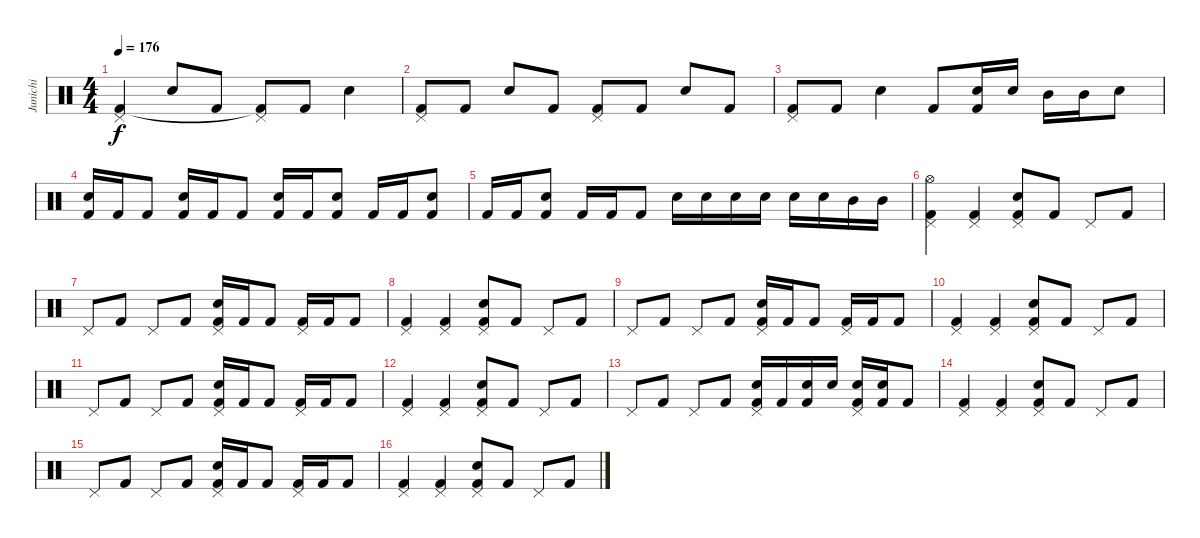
\track ("Junichi" "Junichi") {instrument percussion}
\staff {score}
\articulation defaults
\ts (4 4)
\tempo 176
\clef neutral
\ks c
("Pedal Hi-Hat (hit)" "Kick (hit) 2").4{dy f} "Snare (hit) 2".8 "Kick (hit) 2".8 ("Pedal Hi-Hat (hit)" "Kick (hit) 2"{t}).8 "Kick (hit) 2".8 "Snare (hit) 2".4 |
("Pedal Hi-Hat (hit)" "Kick (hit) 2").8 "Kick (hit) 2".8 "Snare (hit) 2".8 "Kick (hit) 2".8 ("Pedal Hi-Hat (hit)" "Kick (hit) 2").8 "Kick (hit) 2".8 "Snare (hit) 2".8 "Kick (hit) 2".8 |
("Pedal Hi-Hat (hit)" "Kick (hit) 2").8 "Kick (hit) 2".8 "Snare (hit) 2".4 "Kick (hit) 2".8 ("Snare (hit) 2" "Kick (hit) 2").16 "Snare (hit) 2".16 "Mid Tom (hit)".16 "Mid Tom (hit)".16 "Snare (hit) 2".8 |
("Snare (hit) 2" "Kick (hit) 2").16 "Kick (hit) 2".16 "Kick (hit) 2".8 ("Snare (hit) 2" "Kick (hit) 2").16 "Kick (hit) 2".16 "Kick (hit) 2".8 ("Snare (hit) 2" "Kick (hit) 2").16 "Kick (hit) 2".16 ("Snare (hit) 2" "Kick (hit) 2").8 "Kick (hit) 2".16 "Kick (hit) 2".16 ("Snare (hit) 2" "Kick (hit) 2").8 |
"Kick (hit) 2".16 "Kick (hit) 2".16 ("Snare (hit) 2" "Kick (hit) 2").8 "Kick (hit) 2".16 "Kick (hit) 2".16 "Kick (hit) 2".8 "Snare (hit) 2".16 "Snare (hit) 2".16 "Snare (hit) 2".16 "Snare (hit) 2".16 "Snare (hit) 2".16 "Snare (hit) 2".16 "Mid Tom (hit)".16 "Mid Tom (hit)".16 |
("Pedal Hi-Hat (hit)" "Hi-Hat (open)" "Kick (hit) 2").4 ("Pedal Hi-Hat (hit)" "Kick (hit) 2").4 ("Pedal Hi-Hat (hit)" "Snare (hit) 2" "Kick (hit) 2").8 "Kick (hit) 2".8 "Pedal Hi-Hat (hit)".8 "Kick (hit) 2".8 |
"Pedal Hi-Hat (hit)".8 "Kick (hit) 2".8 "Pedal Hi-Hat (hit)".8 "Kick (hit) 2".8 ("Pedal Hi-Hat (hit)" "Snare (hit) 2" "Kick (hit) 2").16 "Kick (hit) 2".16 "Kick (hit) 2".8 ("Pedal Hi-Hat (hit)" "Kick (hit) 2").16 "Kick (hit) 2".16 "Kick (hit) 2".8 |
("Pedal Hi-Hat (hit)" "Kick (hit) 2").4 ("Pedal Hi-Hat (hit)" "Kick (hit) 2").4 ("Pedal Hi-Hat (hit)" "Snare (hit) 2" "Kick (hit) 2").8 "Kick (hit) 2".8 "Pedal Hi-Hat (hit)".8 "Kick (hit) 2".8 |
"Pedal Hi-Hat (hit)".8 "Kick (hit) 2".8 "Pedal Hi-Hat (hit)".8 "Kick (hit) 2".8 ("Pedal Hi-Hat (hit)" "Snare (hit) 2" "Kick (hit) 2").16 "Kick (hit) 2".16 "Kick (hit) 2".8 ("Pedal Hi-Hat (hit)" "Kick (hit) 2").16 "Kick (hit) 2".16 "Kick (hit) 2".8 |
("Pedal Hi-Hat (hit)" "Kick (hit) 2").4 ("Pedal Hi-Hat (hit)" "Kick (hit) 2").4 ("Pedal Hi-Hat (hit)" "Snare (hit) 2" "Kick (hit) 2").8 "Kick (hit) 2".8 "Pedal Hi-Hat (hit)".8 "Kick (hit) 2".8 |
"Pedal Hi-Hat (hit)".8 "Kick (hit) 2".8 "Pedal Hi-Hat (hit)".8 "Kick (hit) 2".8 ("Pedal Hi-Hat (hit)" "Snare (hit) 2" "Kick (hit) 2").16 "Kick (hit) 2".16 "Kick (hit) 2".8 ("Pedal Hi-Hat (hit)" "Kick (hit) 2").16 "Kick (hit) 2".16 "Kick (hit) 2".8 |
("Pedal Hi-Hat (hit)" "Kick (hit) 2").4 ("Pedal Hi-Hat (hit)" "Kick (hit) 2").4 ("Pedal Hi-Hat (hit)" "Snare (hit) 2" "Kick (hit) 2").8 "Kick (hit) 2".8 "Pedal Hi-Hat (hit)".8 "Kick (hit) 2".8 |
"Pedal Hi-Hat (hit)".8 "Kick (hit) 2".8 "Pedal Hi-Hat (hit)".8 "Kick (hit) 2".8 ("Pedal Hi-Hat (hit)" "Snare (hit) 2" "Kick (hit) 2").16 "Kick (hit) 2".16 ("Snare (hit) 2" "Kick (hit) 2").16 "Snare (hit) 2".16 ("Pedal Hi-Hat (hit)" "Snare (hit) 2" "Kick (hit) 2").16 ("Snare (hit) 2" "Kick (hit) 2").16 "Kick (hit) 2".8 |
("Pedal Hi-Hat (hit)" "Kick (hit) 2").4 ("Pedal Hi-Hat (hit)" "Kick (hit) 2").4 ("Pedal Hi-Hat (hit)" "Snare (hit) 2" "Kick (hit) 2").8 "Kick (hit) 2".8 "Pedal Hi-Hat (hit)".8 "Kick (hit) 2".8 |
"Pedal Hi-Hat (hit)".8 "Kick (hit) 2".8 "Pedal Hi-Hat (hit)".8 "Kick (hit) 2".8 ("Pedal Hi-Hat (hit)" "Snare (hit) 2" "Kick (hit) 2").16 "Kick (hit) 2".16 "Kick (hit) 2".8 ("Pedal Hi-Hat (hit)" "Kick (hit) 2").16 "Kick (hit) 2".16 "Kick (hit) 2".8 |
("Pedal Hi-Hat (hit)" "Kick (hit) 2").4 ("Pedal Hi-Hat (hit)" "Kick (hit) 2").4 ("Pedal Hi-Hat (hit)" "Snare (hit) 2" "Kick (hit) 2").8 "Kick (hit) 2".8 "Pedal Hi-Hat (hit)".8 "Kick (hit) 2".8
